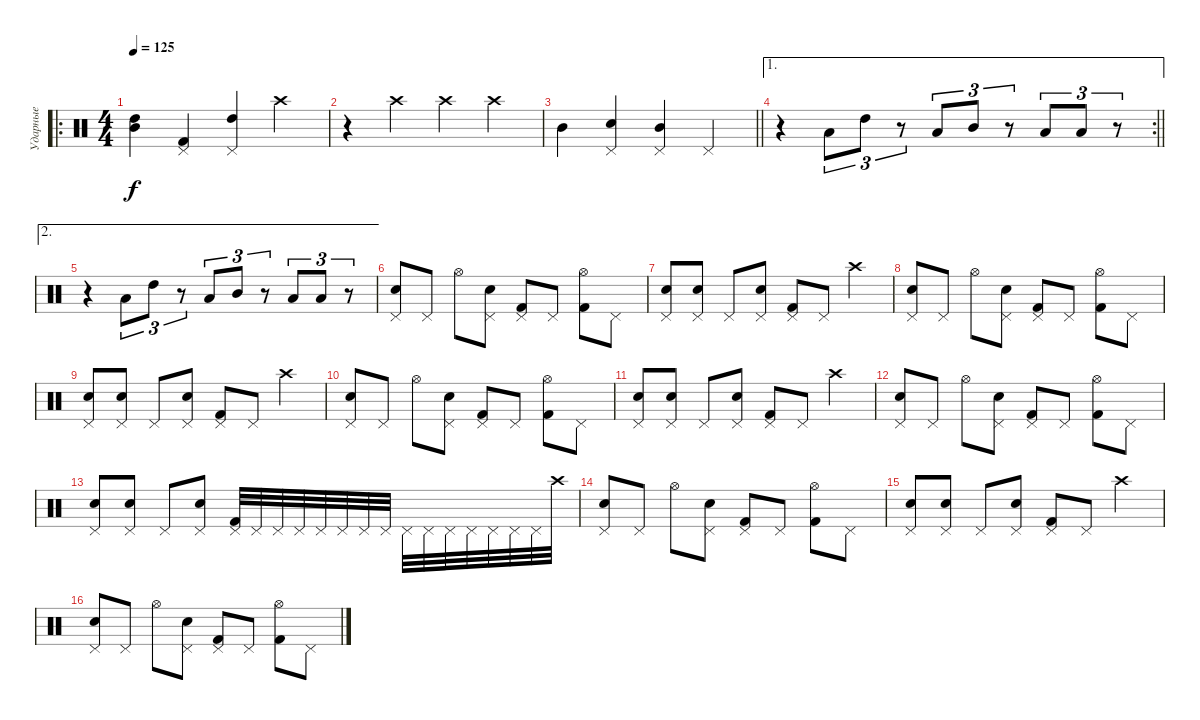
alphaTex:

\track ("Ударные" "Ударные") {instrument percussion}
\staff {score}
\articulation defaults
\ro
\ts (4 4)
\tempo 125
\clef neutral
\ks c
("High Tom (hit)" "Mid Tom (hit)").4{dy f} ("Pedal Hi-Hat (hit)" "Kick (hit) 2").4 ("Pedal Hi-Hat (hit)" "High Tom (hit)").4 "Crash high (hit)".4 |
r.4 "Crash high (hit)".4 "Crash high (hit)".4 "Crash high (hit)".4 |
\barLineRight lightlight "Mid Tom (hit)".4
("Pedal Hi-Hat (hit)" "Snare (hit) 2").4 ("Pedal Hi-Hat (hit)" "Mid Tom (hit)").4 "Pedal Hi-Hat (hit)".4 |
\ae 1
\rc 2
\barLineRight lightlight
r.4 "Low Tom (hit)".8{tu (3 2)} "High Tom (hit)".8{tu (3 2)} r.8{tu (3 2)} "Low Tom (hit)".8{tu (3 2)} "Mid Tom (hit)".8{tu (3 2)} r.8{tu (3 2)} "Low Tom (hit)".8{tu (3 2)} "Low Tom (hit)".8{tu (3 2)} r.8{tu (3 2)} |
\ae 2
r.4 "Low Tom (hit)".8{tu (3 2)} "High Tom (hit)".8{tu (3 2)} r.8{tu (3 2)} "Low Tom (hit)".8{tu (3 2)} "Mid Tom (hit)".8{tu (3 2)} r.8{tu (3 2)} "Low Tom (hit)".8{tu (3 2)} "Low Tom (hit)".8{tu (3 2)} r.8{tu (3 2)} |
("Pedal Hi-Hat (hit)" "Snare (hit) 2").8 "Pedal Hi-Hat (hit)".8 "Hi-Hat (open)".8 ("Pedal Hi-Hat (hit)" "Snare (hit) 2").8 ("Pedal Hi-Hat (hit)" "Kick (hit) 2").8 "Pedal Hi-Hat (hit)".8 ("Hi-Hat (open)" "Kick (hit) 2").8 "Pedal Hi-Hat (hit)".8 |
("Pedal Hi-Hat (hit)" "Snare (hit) 2").8 ("Pedal Hi-Hat (hit)" "Snare (hit) 2").8 "Pedal Hi-Hat (hit)".8 ("Pedal Hi-Hat (hit)" "Snare (hit) 2").8 ("Pedal Hi-Hat (hit)" "Kick (hit) 2").8 "Pedal Hi-Hat (hit)".8 "Crash high (hit)".4 |
("Pedal Hi-Hat (hit)" "Snare (hit) 2").8 "Pedal Hi-Hat (hit)".8 "Hi-Hat (open)".8 ("Pedal Hi-Hat (hit)" "Snare (hit) 2").8 ("Pedal Hi-Hat (hit)" "Kick (hit) 2").8 "Pedal Hi-Hat (hit)".8 ("Hi-Hat (open)" "Kick (hit) 2").8 "Pedal Hi-Hat (hit)".8 |
("Pedal Hi-Hat (hit)" "Snare (hit) 2").8 ("Pedal Hi-Hat (hit)" "Snare (hit) 2").8 "Pedal Hi-Hat (hit)".8 ("Pedal Hi-Hat (hit)" "Snare (hit) 2").8 ("Pedal Hi-Hat (hit)" "Kick (hit) 2").8 "Pedal Hi-Hat (hit)".8 "Crash high (hit)".4 |
("Pedal Hi-Hat (hit)" "Snare (hit) 2").8 "Pedal Hi-Hat (hit)".8 "Hi-Hat (open)".8 ("Pedal Hi-Hat (hit)" "Snare (hit) 2").8 ("Pedal Hi-Hat (hit)" "Kick (hit) 2").8 "Pedal Hi-Hat (hit)".8 ("Hi-Hat (open)" "Kick (hit) 2").8 "Pedal Hi-Hat (hit)".8 |
("Pedal Hi-Hat (hit)" "Snare (hit) 2").8 ("Pedal Hi-Hat (hit)" "Snare (hit) 2").8 "Pedal Hi-Hat (hit)".8 ("Pedal Hi-Hat (hit)" "Snare (hit) 2").8 ("Pedal Hi-Hat (hit)" "Kick (hit) 2").8 "Pedal Hi-Hat (hit)".8 "Crash high (hit)".4 |
("Pedal Hi-Hat (hit)" "Snare (hit) 2").8 "Pedal Hi-Hat (hit)".8 "Hi-Hat (open)".8 ("Pedal Hi-Hat (hit)" "Snare (hit) 2").8 ("Pedal Hi-Hat (hit)" "Kick (hit) 2").8 "Pedal Hi-Hat (hit)".8 ("Hi-Hat (open)" "Kick (hit) 2").8 "Pedal Hi-Hat (hit)".8 |
("Pedal Hi-Hat (hit)" "Snare (hit) 2").8 ("Pedal Hi-Hat (hit)" "Snare (hit) 2").8 "Pedal Hi-Hat (hit)".8 ("Pedal Hi-Hat (hit)" "Snare (hit) 2").8 ("Pedal Hi-Hat (hit)" "Kick (hit) 2").32 "Pedal Hi-Hat (hit)".32 "Pedal Hi-Hat (hit)".32 "Pedal Hi-Hat (hit)".32 "Pedal Hi-Hat (hit)".32 "Pedal Hi-Hat (hit)".32 "Pedal Hi-Hat (hit)".32 "Pedal Hi-Hat (hit)".32 "Pedal Hi-Hat (hit)".32 "Pedal Hi-Hat (hit)".32 "Pedal Hi-Hat (hit)".32 "Pedal Hi-Hat (hit)".32 "Pedal Hi-Hat (hit)".32 "Pedal Hi-Hat (hit)".32 "Pedal Hi-Hat (hit)".32 "Crash high (hit)".32 |
("Pedal Hi-Hat (hit)" "Snare (hit) 2").8 "Pedal Hi-Hat (hit)".8 "Hi-Hat (open)".8 ("Pedal Hi-Hat (hit)" "Snare (hit) 2").8 ("Pedal Hi-Hat (hit)" "Kick (hit) 2").8 "Pedal Hi-Hat (hit)".8 ("Hi-Hat (open)" "Kick (hit) 2").8 "Pedal Hi-Hat (hit)".8 |
("Pedal Hi-Hat (hit)" "Snare (hit) 2").8 ("Pedal Hi-Hat (hit)" "Snare (hit) 2").8 "Pedal Hi-Hat (hit)".8 ("Pedal Hi-Hat (hit)" "Snare (hit) 2").8 ("Pedal Hi-Hat (hit)" "Kick (hit) 2").8 "Pedal Hi-Hat (hit)".8 "Crash high (hit)".4 |
("Pedal Hi-Hat (hit)" "Snare (hit) 2").8 "Pedal Hi-Hat (hit)".8 "Hi-Hat (open)".8 ("Pedal Hi-Hat (hit)" "Snare (hit) 2").8 ("Pedal Hi-Hat (hit)" "Kick (hit) 2").8 "Pedal Hi-Hat (hit)".8 ("Hi-Hat (open)" "Kick (hit) 2").8 "Pedal Hi-Hat (hit)".8
